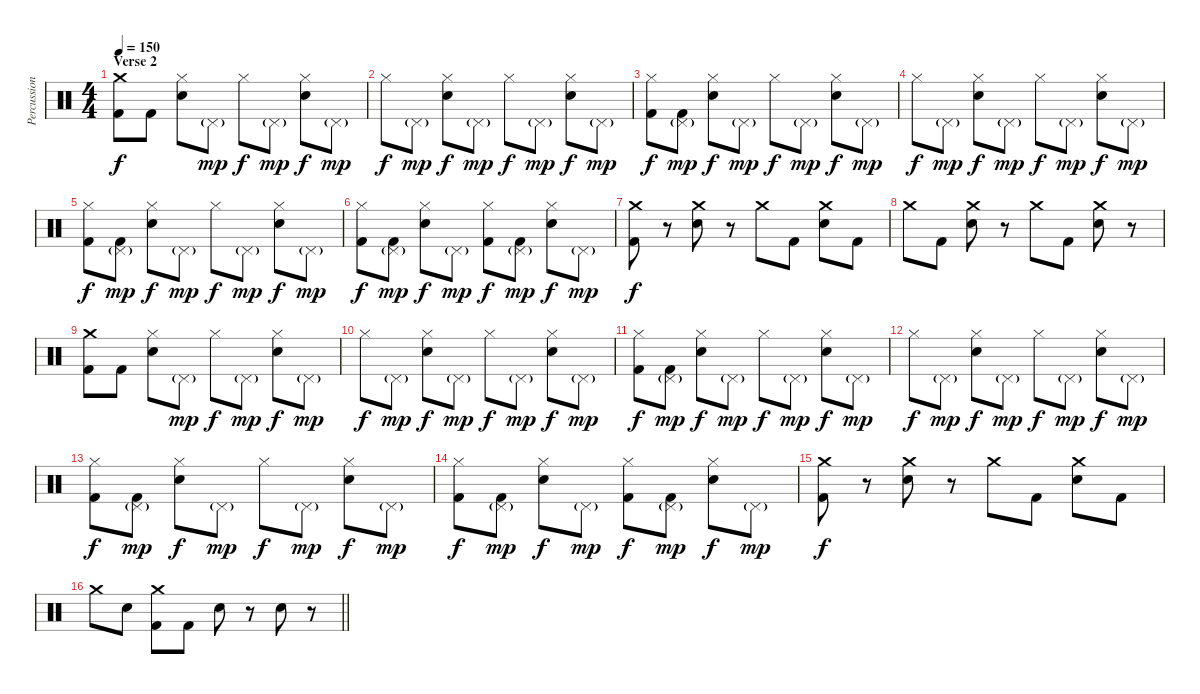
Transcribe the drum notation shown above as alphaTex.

\track ("Percussion" "Percussion") {instrument percussion}
\staff {score}
\articulation defaults
\ts (4 4)
\section ("" "Verse 2")
\tempo 150
\clef neutral
\ks c
("Crash medium (hit)" "Kick (hit) 2").8{dy f} "Kick (hit) 2".8 ("Hi-Hat (closed)" "Electric Snare (hit)").8 "Pedal Hi-Hat (hit)"{g}.8{dy mp} "Hi-Hat (closed)".8{dy f} "Pedal Hi-Hat (hit)"{g}.8{dy mp} ("Hi-Hat (closed)" "Electric Snare (hit)").8{dy f} "Pedal Hi-Hat (hit)"{g}.8{dy mp} |
"Hi-Hat (closed)".8{dy f} "Pedal Hi-Hat (hit)"{g}.8{dy mp} ("Hi-Hat (closed)" "Electric Snare (hit)").8{dy f} "Pedal Hi-Hat (hit)"{g}.8{dy mp} "Hi-Hat (closed)".8{dy f} "Pedal Hi-Hat (hit)"{g}.8{dy mp} ("Hi-Hat (closed)" "Electric Snare (hit)").8{dy f} "Pedal Hi-Hat (hit)"{g}.8{dy mp} |
("Hi-Hat (closed)" "Kick (hit) 2").8{dy f} ("Pedal Hi-Hat (hit)"{g} "Kick (hit) 2").8{dy mp} ("Hi-Hat (closed)" "Electric Snare (hit)").8{dy f} "Pedal Hi-Hat (hit)"{g}.8{dy mp} "Hi-Hat (closed)".8{dy f} "Pedal Hi-Hat (hit)"{g}.8{dy mp} ("Hi-Hat (closed)" "Electric Snare (hit)").8{dy f} "Pedal Hi-Hat (hit)"{g}.8{dy mp} |
"Hi-Hat (closed)".8{dy f} "Pedal Hi-Hat (hit)"{g}.8{dy mp} ("Hi-Hat (closed)" "Electric Snare (hit)").8{dy f} "Pedal Hi-Hat (hit)"{g}.8{dy mp} "Hi-Hat (closed)".8{dy f} "Pedal Hi-Hat (hit)"{g}.8{dy mp} ("Hi-Hat (closed)" "Electric Snare (hit)").8{dy f} "Pedal Hi-Hat (hit)"{g}.8{dy mp} |
("Hi-Hat (closed)" "Kick (hit) 2").8{dy f} ("Pedal Hi-Hat (hit)"{g} "Kick (hit) 2").8{dy mp} ("Hi-Hat (closed)" "Electric Snare (hit)").8{dy f} "Pedal Hi-Hat (hit)"{g}.8{dy mp} "Hi-Hat (closed)".8{dy f} "Pedal Hi-Hat (hit)"{g}.8{dy mp} ("Hi-Hat (closed)" "Electric Snare (hit)").8{dy f} "Pedal Hi-Hat (hit)"{g}.8{dy mp} |
("Hi-Hat (closed)" "Kick (hit) 2").8{dy f} ("Pedal Hi-Hat (hit)"{g} "Kick (hit) 2").8{dy mp} ("Hi-Hat (closed)" "Electric Snare (hit)").8{dy f} "Pedal Hi-Hat (hit)"{g}.8{dy mp} ("Hi-Hat (closed)" "Kick (hit) 2").8{dy f} ("Pedal Hi-Hat (hit)"{g} "Kick (hit) 2").8{dy mp} ("Hi-Hat (closed)" "Electric Snare (hit)").8{dy f} "Pedal Hi-Hat (hit)"{g}.8{dy mp} |
("Crash medium (hit)" "Kick (hit) 2").8{dy f} r.8 ("Crash medium (hit)" "Electric Snare (hit)").8 r.8 "Crash medium (hit)".8 "Kick (hit) 2".8 ("Crash medium (hit)" "Electric Snare (hit)").8 "Kick (hit) 2".8 |
"Crash medium (hit)".8 "Kick (hit) 2".8 ("Crash medium (hit)" "Electric Snare (hit)").8 r.8 "Crash medium (hit)".8 "Kick (hit) 2".8 ("Crash medium (hit)" "Electric Snare (hit)").8 r.8 |
("Crash medium (hit)" "Kick (hit) 2").8 "Kick (hit) 2".8 ("Hi-Hat (closed)" "Electric Snare (hit)").8 "Pedal Hi-Hat (hit)"{g}.8{dy mp} "Hi-Hat (closed)".8{dy f} "Pedal Hi-Hat (hit)"{g}.8{dy mp} ("Hi-Hat (closed)" "Electric Snare (hit)").8{dy f} "Pedal Hi-Hat (hit)"{g}.8{dy mp} |
"Hi-Hat (closed)".8{dy f} "Pedal Hi-Hat (hit)"{g}.8{dy mp} ("Hi-Hat (closed)" "Electric Snare (hit)").8{dy f} "Pedal Hi-Hat (hit)"{g}.8{dy mp} "Hi-Hat (closed)".8{dy f} "Pedal Hi-Hat (hit)"{g}.8{dy mp} ("Hi-Hat (closed)" "Electric Snare (hit)").8{dy f} "Pedal Hi-Hat (hit)"{g}.8{dy mp} |
("Hi-Hat (closed)" "Kick (hit) 2").8{dy f} ("Pedal Hi-Hat (hit)"{g} "Kick (hit) 2").8{dy mp} ("Hi-Hat (closed)" "Electric Snare (hit)").8{dy f} "Pedal Hi-Hat (hit)"{g}.8{dy mp} "Hi-Hat (closed)".8{dy f} "Pedal Hi-Hat (hit)"{g}.8{dy mp} ("Hi-Hat (closed)" "Electric Snare (hit)").8{dy f} "Pedal Hi-Hat (hit)"{g}.8{dy mp} |
"Hi-Hat (closed)".8{dy f} "Pedal Hi-Hat (hit)"{g}.8{dy mp} ("Hi-Hat (closed)" "Electric Snare (hit)").8{dy f} "Pedal Hi-Hat (hit)"{g}.8{dy mp} "Hi-Hat (closed)".8{dy f} "Pedal Hi-Hat (hit)"{g}.8{dy mp} ("Hi-Hat (closed)" "Electric Snare (hit)").8{dy f} "Pedal Hi-Hat (hit)"{g}.8{dy mp} |
("Hi-Hat (closed)" "Kick (hit) 2").8{dy f} ("Pedal Hi-Hat (hit)"{g} "Kick (hit) 2").8{dy mp} ("Hi-Hat (closed)" "Electric Snare (hit)").8{dy f} "Pedal Hi-Hat (hit)"{g}.8{dy mp} "Hi-Hat (closed)".8{dy f} "Pedal Hi-Hat (hit)"{g}.8{dy mp} ("Hi-Hat (closed)" "Electric Snare (hit)").8{dy f} "Pedal Hi-Hat (hit)"{g}.8{dy mp} |
("Hi-Hat (closed)" "Kick (hit) 2").8{dy f} ("Pedal Hi-Hat (hit)"{g} "Kick (hit) 2").8{dy mp} ("Hi-Hat (closed)" "Electric Snare (hit)").8{dy f} "Pedal Hi-Hat (hit)"{g}.8{dy mp} ("Hi-Hat (closed)" "Kick (hit) 2").8{dy f} ("Pedal Hi-Hat (hit)"{g} "Kick (hit) 2").8{dy mp} ("Hi-Hat (closed)" "Electric Snare (hit)").8{dy f} "Pedal Hi-Hat (hit)"{g}.8{dy mp} |
("Crash medium (hit)" "Kick (hit) 2").8{dy f} r.8 ("Crash medium (hit)" "Electric Snare (hit)").8 r.8 "Crash medium (hit)".8 "Kick (hit) 2".8 ("Crash medium (hit)" "Electric Snare (hit)").8 "Kick (hit) 2".8 |
\barLineRight lightlight "Crash medium (hit)".8 "Electric Snare (hit)".8
("Crash medium (hit)" "Kick (hit) 2").8 "Kick (hit) 2".8 "Electric Snare (hit)".8 r.8 "Electric Snare (hit)".8 r.8
